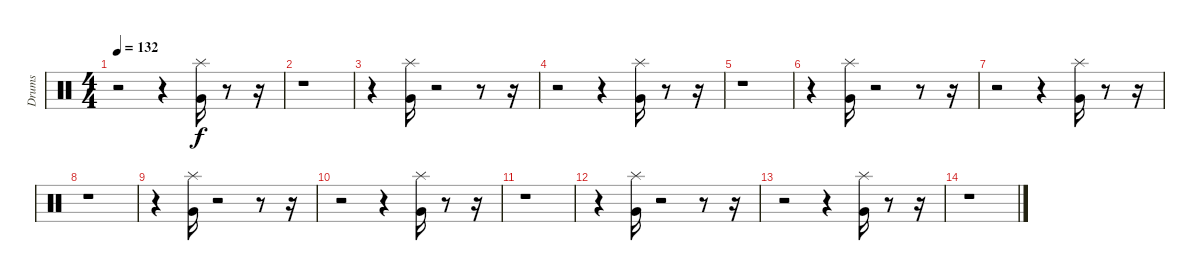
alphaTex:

\track ("Drums" "Drums") {instrument percussion}
\staff {score}
\articulation defaults
\ts (4 4)
\tempo 132
\clef neutral
\ks c
r.2{dy f} r.4 ("Very Low Tom (hit)" "Splash (hit)").16 r.8 r.16 |
r.1 |
r.4 ("Very Low Tom (hit)" "Splash (hit)").16 r.2 r.8 r.16 |
r.2 r.4 ("Splash (hit)" "Very Low Tom (hit)").16 r.8 r.16 |
r.1 |
r.4 ("Splash (hit)" "Very Low Tom (hit)").16 r.2 r.8 r.16 |
r.2 r.4 ("Very Low Tom (hit)" "Splash (hit)").16 r.8 r.16 |
r.1 |
r.4 ("Very Low Tom (hit)" "Splash (hit)").16 r.2 r.8 r.16 |
r.2 r.4 ("Very Low Tom (hit)" "Splash (hit)").16 r.8 r.16 |
r.1 |
r.4 ("Very Low Tom (hit)" "Splash (hit)").16 r.2 r.8 r.16 |
r.2 r.4 ("Very Low Tom (hit)" "Splash (hit)").16 r.8 r.16 |
r.1
